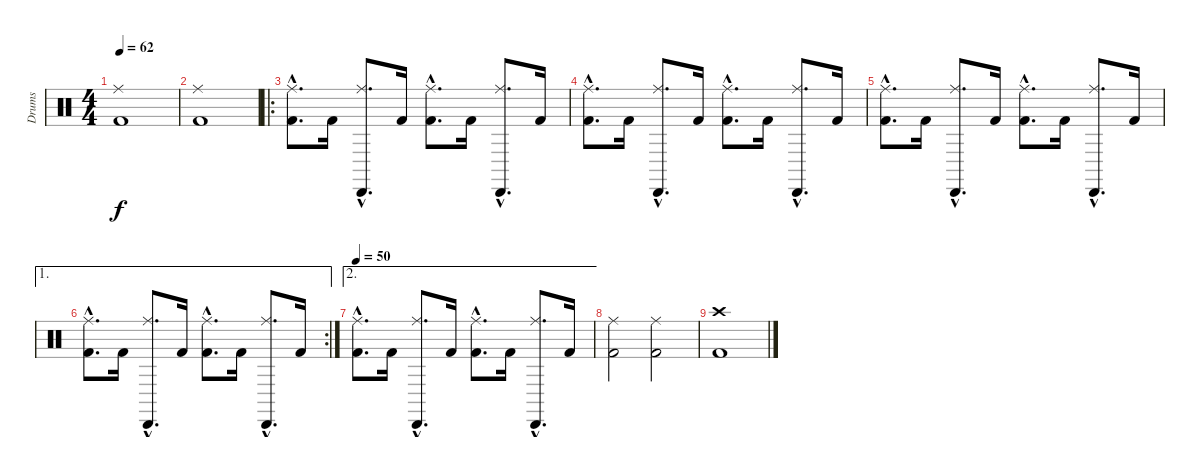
\track ("Drums" "Drums") {instrument percussion}
\staff {score}
\articulation defaults
\ts (4 4)
\tempo 62
\clef neutral
\ks c
("Ride (middle)" "Kick (hit) 2").1{dy f} |
("Ride (middle)" "Kick (hit) 2").1 |
\ro
("Ride (middle)"{hac} "Kick (hit) 2"{hac}).8{d} "Kick (hit) 2".16 ("Ride (middle)"{hac} "Cabasa (hit)"{hac}).8{d} "Kick (hit) 2".16 ("Ride (middle)"{hac} "Kick (hit) 2"{hac}).8{d} "Kick (hit) 2".16 ("Ride (middle)"{hac} "Cabasa (hit)"{hac}).8{d} "Kick (hit) 2".16 |
("Ride (middle)"{hac} "Kick (hit) 2"{hac}).8{d} "Kick (hit) 2".16 ("Ride (middle)"{hac} "Cabasa (hit)"{hac}).8{d} "Kick (hit) 2".16 ("Ride (middle)"{hac} "Kick (hit) 2"{hac}).8{d} "Kick (hit) 2".16 ("Ride (middle)"{hac} "Cabasa (hit)"{hac}).8{d} "Kick (hit) 2".16 |
("Ride (middle)"{hac} "Kick (hit) 2"{hac}).8{d} "Kick (hit) 2".16 ("Ride (middle)"{hac} "Cabasa (hit)"{hac}).8{d} "Kick (hit) 2".16 ("Ride (middle)"{hac} "Kick (hit) 2"{hac}).8{d} "Kick (hit) 2".16 ("Ride (middle)"{hac} "Cabasa (hit)"{hac}).8{d} "Kick (hit) 2".16 |
\ae 1
\rc 2
("Ride (middle)"{hac} "Kick (hit) 2"{hac}).8{d} "Kick (hit) 2".16 ("Ride (middle)"{hac} "Cabasa (hit)"{hac}).8{d} "Kick (hit) 2".16 ("Ride (middle)"{hac} "Kick (hit) 2"{hac}).8{d} "Kick (hit) 2".16 ("Ride (middle)"{hac} "Cabasa (hit)"{hac}).8{d} "Kick (hit) 2".16 |
\ae 2
\tempo 50
("Ride (middle)"{hac} "Kick (hit) 2"{hac}).8{d} "Kick (hit) 2".16 ("Ride (middle)"{hac} "Cabasa (hit)"{hac}).8{d} "Kick (hit) 2".16 ("Ride (middle)"{hac} "Kick (hit) 2"{hac}).8{d} "Kick (hit) 2".16 ("Ride (middle)"{hac} "Cabasa (hit)"{hac}).8{d} "Kick (hit) 2".16 |
("Ride (middle)" "Kick (hit) 2").2 ("Ride (middle)" "Kick (hit) 2").2 |
("Crash high (hit)" "Kick (hit) 2").1
